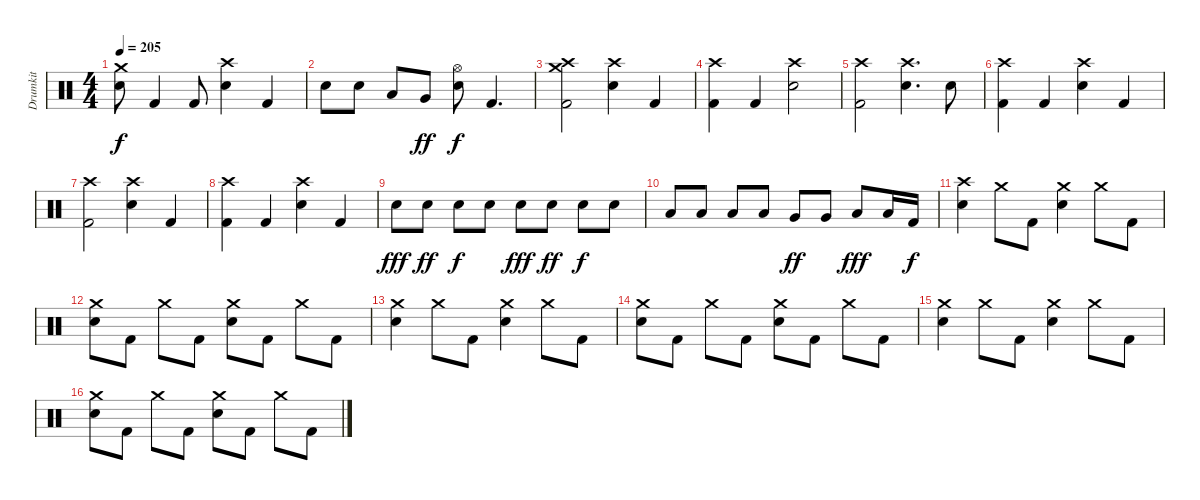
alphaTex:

\track ("Drumkit" "Drumkit") {instrument percussion}
\staff {score}
\articulation defaults
\ts (4 4)
\tempo 205
\clef neutral
\ks c
("Crash medium (hit)" "Electric Snare (hit)").8{dy f} "Kick (hit) 2".4 "Kick (hit) 2".8 ("Crash high (hit)" "Electric Snare (hit)").4 "Kick (hit) 2".4 |
"Electric Snare (hit)".8 "Electric Snare (hit)".8 "Low Tom (hit)".8 "Very Low Tom (hit)".8{dy ff} ("Hi-Hat (open)" "Electric Snare (hit)").8{dy f} "Kick (hit) 2".4{d} |
("Crash high (hit)" "Crash medium (hit)" "Kick (hit) 2").2 ("Crash high (hit)" "Electric Snare (hit)").4 "Kick (hit) 2".4 |
("Crash high (hit)" "Kick (hit) 2").4 "Kick (hit) 2".4 ("Crash high (hit)" "Electric Snare (hit)").2 |
("Crash high (hit)" "Kick (hit) 2").2 ("Crash high (hit)" "Electric Snare (hit)").4{d} "Electric Snare (hit)".8 |
("Crash high (hit)" "Kick (hit) 2").4 "Kick (hit) 2".4 ("Crash high (hit)" "Electric Snare (hit)").4 "Kick (hit) 2".4 |
("Crash high (hit)" "Kick (hit) 2").2 ("Crash high (hit)" "Electric Snare (hit)").4 "Kick (hit) 2".4 |
("Crash high (hit)" "Kick (hit) 2").4 "Kick (hit) 2".4 ("Crash high (hit)" "Electric Snare (hit)").4 "Kick (hit) 2".4 |
"Electric Snare (hit)".8{dy fff} "Electric Snare (hit)".8{dy ff} "Electric Snare (hit)".8{dy f} "Electric Snare (hit)".8 "Electric Snare (hit)".8{dy fff} "Electric Snare (hit)".8{dy ff} "Electric Snare (hit)".8{dy f} "Electric Snare (hit)".8 |
"Low Tom (hit)".8 "Low Tom (hit)".8 "Low Tom (hit)".8 "Low Tom (hit)".8 "Very Low Tom (hit)".8{dy ff} "Very Low Tom (hit)".8 "Low Floor Tom (hit)".8{dy fff} "Low Floor Tom (hit)".16 "Kick (hit) 2".16{dy f} |
("Crash high (hit)" "Electric Snare (hit)").4 "Crash medium (hit)".8 "Kick (hit) 2".8 ("Crash medium (hit)" "Electric Snare (hit)").4 "Crash medium (hit)".8 "Kick (hit) 2".8 |
("Crash medium (hit)" "Electric Snare (hit)").8 "Kick (hit) 2".8 "Crash medium (hit)".8 "Kick (hit) 2".8 ("Crash medium (hit)" "Electric Snare (hit)").8 "Kick (hit) 2".8 "Crash medium (hit)".8 "Kick (hit) 2".8 |
("Crash medium (hit)" "Electric Snare (hit)").4 "Crash medium (hit)".8 "Kick (hit) 2".8 ("Crash medium (hit)" "Electric Snare (hit)").4 "Crash medium (hit)".8 "Kick (hit) 2".8 |
("Crash medium (hit)" "Electric Snare (hit)").8 "Kick (hit) 2".8 "Crash medium (hit)".8 "Kick (hit) 2".8 ("Crash medium (hit)" "Electric Snare (hit)").8 "Kick (hit) 2".8 "Crash medium (hit)".8 "Kick (hit) 2".8 |
("Crash medium (hit)" "Electric Snare (hit)").4 "Crash medium (hit)".8 "Kick (hit) 2".8 ("Crash medium (hit)" "Electric Snare (hit)").4 "Crash medium (hit)".8 "Kick (hit) 2".8 |
("Crash medium (hit)" "Electric Snare (hit)").8 "Kick (hit) 2".8 "Crash medium (hit)".8 "Kick (hit) 2".8 ("Crash medium (hit)" "Electric Snare (hit)").8 "Kick (hit) 2".8 "Crash medium (hit)".8 "Kick (hit) 2".8
